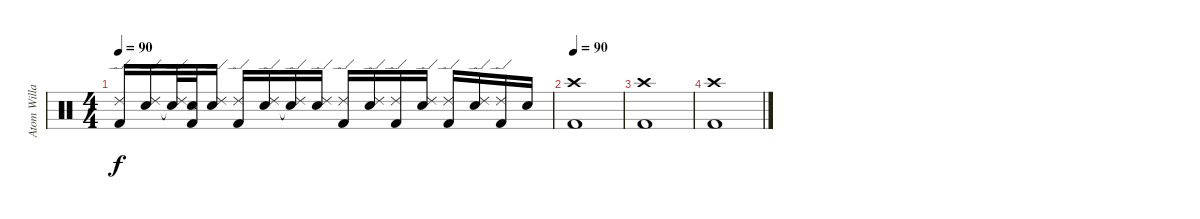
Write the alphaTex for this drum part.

\track ("Atom Willard (Drums)" "Atom Willa") {instrument percussion}
\staff {score}
\articulation defaults
\ts (4 4)
\tempo 90
\clef neutral
\ks c
("Ride (edge) 2" "Kick (hit) 2").16{dy f} ("Ride (edge) 2" "Electric Snare (hit)").16 ("Ride (edge) 2" "Snare (hit)"{t}).32 ("Snare (hit)"{t} "Kick (hit) 2").32 ("Ride (edge) 2" "Electric Snare (hit)").16 ("Ride (edge) 2" "Kick (hit) 2").16 ("Ride (edge) 2" "Electric Snare (hit)").16 ("Ride (edge) 2" "Snare (hit)"{t}).16 ("Ride (edge) 2" "Electric Snare (hit)").16 ("Ride (edge) 2" "Kick (hit) 2").16 ("Ride (edge) 2" "Electric Snare (hit)").16 ("Ride (edge) 2" "Kick (hit) 2").16 ("Ride (edge) 2" "Electric Snare (hit)").16 ("Ride (edge) 2" "Kick (hit) 2").16 ("Ride (edge) 2" "Electric Snare (hit)").16 ("Ride (edge) 2" "Kick (hit) 2").16 "Electric Snare (hit)".16 |
\tempo 90
("Crash high (hit)" "Kick (hit) 2").1 |
("Crash high (hit)" "Kick (hit) 2").1 |
("Crash high (hit)" "Kick (hit) 2").1
